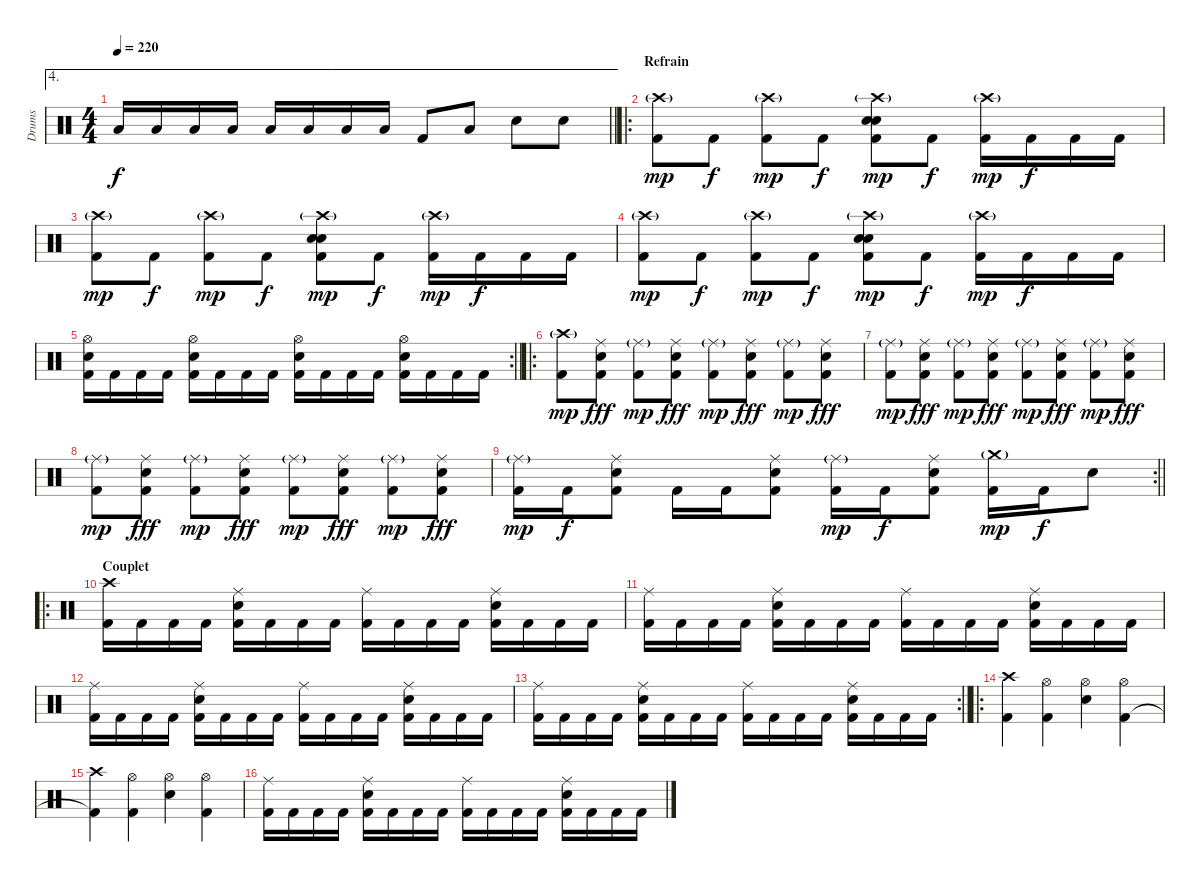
\track ("Drums" "Drums") {instrument percussion}
\staff {score}
\articulation defaults
\ae 4
\ts (4 4)
\tempo 220
\clef neutral
\barLineRight lightlight
\ks c "Low Tom (hit)".16{dy f} "Low Tom (hit)".16 "Low Tom (hit)".16 "Low Tom (hit)".16 "Low Tom (hit)".16 "Low Tom (hit)".16 "Low Tom (hit)".16 "Low Tom (hit)".16 "Kick (hit) 2".8 "Low Tom (hit)".8 "Electric Snare (hit)".8 "Electric Snare (hit)".8
|
\ro
\section ("" "Refrain")
("Crash high (hit)"{g} "Kick (hit) 2").8{dy mp} "Kick (hit) 2".8{dy f} ("Crash high (hit)"{g} "Kick (hit) 2").8{dy mp} "Kick (hit) 2".8{dy f} ("Crash high (hit)"{g} "Electric Snare (hit)" "Electric Snare (hit)" "Kick (hit) 2").8{dy mp} "Kick (hit) 2".8{dy f} ("Crash high (hit)"{g} "Kick (hit) 2").16{dy mp} "Kick (hit) 2".16{dy f} "Kick (hit) 2".16 "Kick (hit) 2".16 |
("Crash high (hit)"{g} "Kick (hit) 2").8{dy mp} "Kick (hit) 2".8{dy f} ("Crash high (hit)"{g} "Kick (hit) 2").8{dy mp} "Kick (hit) 2".8{dy f} ("Crash high (hit)"{g} "Electric Snare (hit)" "Electric Snare (hit)" "Kick (hit) 2").8{dy mp} "Kick (hit) 2".8{dy f} ("Crash high (hit)"{g} "Kick (hit) 2").16{dy mp} "Kick (hit) 2".16{dy f} "Kick (hit) 2".16 "Kick (hit) 2".16 |
("Crash high (hit)"{g} "Kick (hit) 2").8{dy mp} "Kick (hit) 2".8{dy f} ("Crash high (hit)"{g} "Kick (hit) 2").8{dy mp} "Kick (hit) 2".8{dy f} ("Crash high (hit)"{g} "Electric Snare (hit)" "Electric Snare (hit)" "Kick (hit) 2").8{dy mp} "Kick (hit) 2".8{dy f} ("Crash high (hit)"{g} "Kick (hit) 2").16{dy mp} "Kick (hit) 2".16{dy f} "Kick (hit) 2".16 "Kick (hit) 2".16 |
\rc 2
\barLineRight lightlight
("Hi-Hat (open)" "Electric Snare (hit)" "Kick (hit) 2").16 "Kick (hit) 2".16 "Kick (hit) 2".16 "Kick (hit) 2".16 ("Hi-Hat (open)" "Electric Snare (hit)" "Kick (hit) 2").16 "Kick (hit) 2".16 "Kick (hit) 2".16 "Kick (hit) 2".16 ("Hi-Hat (open)" "Electric Snare (hit)" "Kick (hit) 2").16 "Kick (hit) 2".16 "Kick (hit) 2".16 "Kick (hit) 2".16 ("Hi-Hat (open)" "Electric Snare (hit)" "Kick (hit) 2").16 "Kick (hit) 2".16 "Kick (hit) 2".16 "Kick (hit) 2".16 |
\ro
("Crash high (hit)"{g} "Kick (hit) 2").8{dy mp} ("Ride (middle)" "Electric Snare (hit)" "Kick (hit) 2").8{dy fff} ("Ride (middle)"{g} "Kick (hit) 2").8{dy mp} ("Ride (middle)" "Electric Snare (hit)" "Kick (hit) 2").8{dy fff} ("Ride (middle)"{g} "Kick (hit) 2").8{dy mp} ("Ride (middle)" "Electric Snare (hit)" "Kick (hit) 2").8{dy fff} ("Ride (middle)"{g} "Kick (hit) 2").8{dy mp} ("Ride (middle)" "Electric Snare (hit)" "Kick (hit) 2").8{dy fff} |
("Ride (middle)"{g} "Kick (hit) 2").8{dy mp} ("Ride (middle)" "Electric Snare (hit)" "Kick (hit) 2").8{dy fff} ("Ride (middle)"{g} "Kick (hit) 2").8{dy mp} ("Ride (middle)" "Electric Snare (hit)" "Kick (hit) 2").8{dy fff} ("Ride (middle)"{g} "Kick (hit) 2").8{dy mp} ("Ride (middle)" "Electric Snare (hit)" "Kick (hit) 2").8{dy fff} ("Ride (middle)"{g} "Kick (hit) 2").8{dy mp} ("Ride (middle)" "Electric Snare (hit)" "Kick (hit) 2").8{dy fff} |
("Ride (middle)"{g} "Kick (hit) 2").8{dy mp} ("Ride (middle)" "Electric Snare (hit)" "Kick (hit) 2").8{dy fff} ("Ride (middle)"{g} "Kick (hit) 2").8{dy mp} ("Ride (middle)" "Electric Snare (hit)" "Kick (hit) 2").8{dy fff} ("Ride (middle)"{g} "Kick (hit) 2").8{dy mp} ("Ride (middle)" "Electric Snare (hit)" "Kick (hit) 2").8{dy fff} ("Ride (middle)"{g} "Kick (hit) 2").8{dy mp} ("Ride (middle)" "Electric Snare (hit)" "Kick (hit) 2").8{dy fff} |
\rc 2
\barLineRight lightlight
("Ride (middle)"{g} "Kick (hit) 2").16{dy mp} "Kick (hit) 2".16{dy f} ("Ride (middle)" "Electric Snare (hit)" "Kick (hit) 2").8 "Kick (hit) 2".16 "Kick (hit) 2".16 ("Ride (middle)" "Electric Snare (hit)" "Kick (hit) 2").8 ("Ride (middle)"{g} "Kick (hit) 2").16{dy mp} "Kick (hit) 2".16{dy f} ("Ride (middle)" "Electric Snare (hit)" "Kick (hit) 2").8 ("Crash medium (hit)"{g} "Kick (hit) 2").16{dy mp} "Kick (hit) 2".16{dy f} "Electric Snare (hit)".8 |
\ro
\section ("" "Couplet")
("Crash high (hit)" "Kick (hit) 2").16 "Kick (hit) 2".16 "Kick (hit) 2".16 "Kick (hit) 2".16 ("Ride (middle)" "Electric Snare (hit)" "Kick (hit) 2").16 "Kick (hit) 2".16 "Kick (hit) 2".16 "Kick (hit) 2".16 ("Ride (middle)" "Kick (hit) 2").16 "Kick (hit) 2".16 "Kick (hit) 2".16 "Kick (hit) 2".16 ("Ride (middle)" "Electric Snare (hit)" "Kick (hit) 2").16 "Kick (hit) 2".16 "Kick (hit) 2".16 "Kick (hit) 2".16 |
("Ride (middle)" "Kick (hit) 2").16 "Kick (hit) 2".16 "Kick (hit) 2".16 "Kick (hit) 2".16 ("Ride (middle)" "Electric Snare (hit)" "Kick (hit) 2").16 "Kick (hit) 2".16 "Kick (hit) 2".16 "Kick (hit) 2".16 ("Ride (middle)" "Kick (hit) 2").16 "Kick (hit) 2".16 "Kick (hit) 2".16 "Kick (hit) 2".16 ("Ride (middle)" "Electric Snare (hit)" "Kick (hit) 2").16 "Kick (hit) 2".16 "Kick (hit) 2".16 "Kick (hit) 2".16 |
("Ride (middle)" "Kick (hit) 2").16 "Kick (hit) 2".16 "Kick (hit) 2".16 "Kick (hit) 2".16 ("Ride (middle)" "Electric Snare (hit)" "Kick (hit) 2").16 "Kick (hit) 2".16 "Kick (hit) 2".16 "Kick (hit) 2".16 ("Ride (middle)" "Kick (hit) 2").16 "Kick (hit) 2".16 "Kick (hit) 2".16 "Kick (hit) 2".16 ("Ride (middle)" "Electric Snare (hit)" "Kick (hit) 2").16 "Kick (hit) 2".16 "Kick (hit) 2".16 "Kick (hit) 2".16 |
\rc 2
\barLineRight lightlight
("Ride (middle)" "Kick (hit) 2").16 "Kick (hit) 2".16 "Kick (hit) 2".16 "Kick (hit) 2".16 ("Ride (middle)" "Electric Snare (hit)" "Kick (hit) 2").16 "Kick (hit) 2".16 "Kick (hit) 2".16 "Kick (hit) 2".16 ("Ride (middle)" "Kick (hit) 2").16 "Kick (hit) 2".16 "Kick (hit) 2".16 "Kick (hit) 2".16 ("Ride (middle)" "Electric Snare (hit)" "Kick (hit) 2").16 "Kick (hit) 2".16 "Kick (hit) 2".16 "Kick (hit) 2".16 |
\ro
("Crash high (hit)" "Kick (hit) 2").4 ("Hi-Hat (open)" "Kick (hit) 2").4 ("Hi-Hat (open)" "Electric Snare (hit)").4 ("Hi-Hat (open)" "Kick (hit) 2").4 |
("Crash high (hit)" "Kick (hit) 2"{t}).4 ("Hi-Hat (open)" "Kick (hit) 2").4 ("Hi-Hat (open)" "Electric Snare (hit)").4 ("Hi-Hat (open)" "Kick (hit) 2").4 |
("Ride (middle)" "Kick (hit) 2").16 "Kick (hit) 2".16 "Kick (hit) 2".16 "Kick (hit) 2".16 ("Ride (middle)" "Electric Snare (hit)" "Kick (hit) 2").16 "Kick (hit) 2".16 "Kick (hit) 2".16 "Kick (hit) 2".16 ("Ride (middle)" "Kick (hit) 2").16 "Kick (hit) 2".16 "Kick (hit) 2".16 "Kick (hit) 2".16 ("Ride (middle)" "Electric Snare (hit)" "Kick (hit) 2").16 "Kick (hit) 2".16 "Kick (hit) 2".16 "Kick (hit) 2".16
